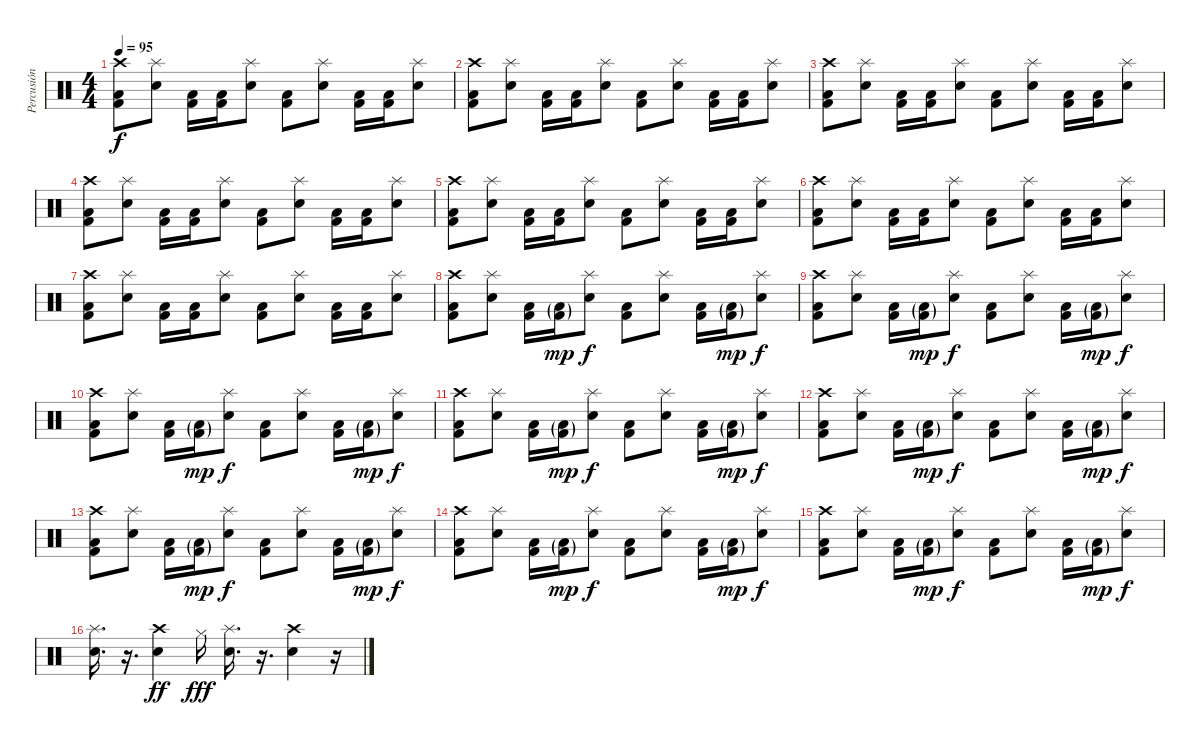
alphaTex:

\track ("Percusión" "Percusión") {instrument percussion}
\staff {score}
\articulation defaults
\ts (4 4)
\tempo 95
\clef neutral
\ks c
("Crash high (hit)" "Low Floor Tom (hit)" "Kick (hit) 2").8{dy f} ("Splash (hit)" "Electric Snare (hit)").8 ("Low Floor Tom (hit)" "Kick (hit) 2").16 ("Low Floor Tom (hit)" "Kick (hit) 2").16 ("Splash (hit)" "Electric Snare (hit)").8 ("Low Floor Tom (hit)" "Kick (hit) 2").8 ("Splash (hit)" "Electric Snare (hit)").8 ("Low Floor Tom (hit)" "Kick (hit) 2").16 ("Low Floor Tom (hit)" "Kick (hit) 2").16 ("Splash (hit)" "Electric Snare (hit)").8 |
("Crash high (hit)" "Low Floor Tom (hit)" "Kick (hit) 2").8 ("Splash (hit)" "Electric Snare (hit)").8 ("Low Floor Tom (hit)" "Kick (hit) 2").16 ("Low Floor Tom (hit)" "Kick (hit) 2").16 ("Splash (hit)" "Electric Snare (hit)").8 ("Low Floor Tom (hit)" "Kick (hit) 2").8 ("Splash (hit)" "Electric Snare (hit)").8 ("Low Floor Tom (hit)" "Kick (hit) 2").16 ("Low Floor Tom (hit)" "Kick (hit) 2").16 ("Splash (hit)" "Electric Snare (hit)").8 |
("Crash high (hit)" "Low Floor Tom (hit)" "Kick (hit) 2").8 ("Splash (hit)" "Electric Snare (hit)").8 ("Low Floor Tom (hit)" "Kick (hit) 2").16 ("Low Floor Tom (hit)" "Kick (hit) 2").16 ("Splash (hit)" "Electric Snare (hit)").8 ("Low Floor Tom (hit)" "Kick (hit) 2").8 ("Splash (hit)" "Electric Snare (hit)").8 ("Low Floor Tom (hit)" "Kick (hit) 2").16 ("Low Floor Tom (hit)" "Kick (hit) 2").16 ("Splash (hit)" "Electric Snare (hit)").8 |
("Crash high (hit)" "Low Floor Tom (hit)" "Kick (hit) 2").8 ("Splash (hit)" "Electric Snare (hit)").8 ("Low Floor Tom (hit)" "Kick (hit) 2").16 ("Low Floor Tom (hit)" "Kick (hit) 2").16 ("Splash (hit)" "Electric Snare (hit)").8 ("Low Floor Tom (hit)" "Kick (hit) 2").8 ("Splash (hit)" "Electric Snare (hit)").8 ("Low Floor Tom (hit)" "Kick (hit) 2").16 ("Low Floor Tom (hit)" "Kick (hit) 2").16 ("Splash (hit)" "Electric Snare (hit)").8 |
("Crash high (hit)" "Low Floor Tom (hit)" "Kick (hit) 2").8 ("Splash (hit)" "Electric Snare (hit)").8 ("Low Floor Tom (hit)" "Kick (hit) 2").16 ("Low Floor Tom (hit)" "Kick (hit) 2").16 ("Splash (hit)" "Electric Snare (hit)").8 ("Low Floor Tom (hit)" "Kick (hit) 2").8 ("Splash (hit)" "Electric Snare (hit)").8 ("Low Floor Tom (hit)" "Kick (hit) 2").16 ("Low Floor Tom (hit)" "Kick (hit) 2").16 ("Splash (hit)" "Electric Snare (hit)").8 |
("Crash high (hit)" "Low Floor Tom (hit)" "Kick (hit) 2").8 ("Splash (hit)" "Electric Snare (hit)").8 ("Low Floor Tom (hit)" "Kick (hit) 2").16 ("Low Floor Tom (hit)" "Kick (hit) 2").16 ("Splash (hit)" "Electric Snare (hit)").8 ("Low Floor Tom (hit)" "Kick (hit) 2").8 ("Splash (hit)" "Electric Snare (hit)").8 ("Low Floor Tom (hit)" "Kick (hit) 2").16 ("Low Floor Tom (hit)" "Kick (hit) 2").16 ("Splash (hit)" "Electric Snare (hit)").8 |
("Crash high (hit)" "Low Floor Tom (hit)" "Kick (hit) 2").8 ("Splash (hit)" "Electric Snare (hit)").8 ("Low Floor Tom (hit)" "Kick (hit) 2").16 ("Low Floor Tom (hit)" "Kick (hit) 2").16 ("Splash (hit)" "Electric Snare (hit)").8 ("Low Floor Tom (hit)" "Kick (hit) 2").8 ("Splash (hit)" "Electric Snare (hit)").8 ("Low Floor Tom (hit)" "Kick (hit) 2").16 ("Low Floor Tom (hit)" "Kick (hit) 2").16 ("Splash (hit)" "Electric Snare (hit)").8 |
("Crash high (hit)" "Low Floor Tom (hit)" "Kick (hit) 2").8 ("Splash (hit)" "Electric Snare (hit)").8 ("Low Floor Tom (hit)" "Kick (hit) 2").16 ("Low Floor Tom (hit)"{g} "Kick (hit) 2"{g}).16{dy mp} ("Splash (hit)" "Electric Snare (hit)").8{dy f} ("Low Floor Tom (hit)" "Kick (hit) 2").8 ("Splash (hit)" "Electric Snare (hit)").8 ("Low Floor Tom (hit)" "Kick (hit) 2").16 ("Low Floor Tom (hit)"{g} "Kick (hit) 2"{g}).16{dy mp} ("Splash (hit)" "Electric Snare (hit)").8{dy f} |
("Crash high (hit)" "Low Floor Tom (hit)" "Kick (hit) 2").8 ("Splash (hit)" "Electric Snare (hit)").8 ("Low Floor Tom (hit)" "Kick (hit) 2").16 ("Low Floor Tom (hit)"{g} "Kick (hit) 2"{g}).16{dy mp} ("Splash (hit)" "Electric Snare (hit)").8{dy f} ("Low Floor Tom (hit)" "Kick (hit) 2").8 ("Splash (hit)" "Electric Snare (hit)").8 ("Low Floor Tom (hit)" "Kick (hit) 2").16 ("Low Floor Tom (hit)"{g} "Kick (hit) 2"{g}).16{dy mp} ("Splash (hit)" "Electric Snare (hit)").8{dy f} |
("Crash high (hit)" "Low Floor Tom (hit)" "Kick (hit) 2").8 ("Splash (hit)" "Electric Snare (hit)").8 ("Low Floor Tom (hit)" "Kick (hit) 2").16 ("Low Floor Tom (hit)"{g} "Kick (hit) 2"{g}).16{dy mp} ("Splash (hit)" "Electric Snare (hit)").8{dy f} ("Low Floor Tom (hit)" "Kick (hit) 2").8 ("Splash (hit)" "Electric Snare (hit)").8 ("Low Floor Tom (hit)" "Kick (hit) 2").16 ("Low Floor Tom (hit)"{g} "Kick (hit) 2"{g}).16{dy mp} ("Splash (hit)" "Electric Snare (hit)").8{dy f} |
("Crash high (hit)" "Low Floor Tom (hit)" "Kick (hit) 2").8 ("Splash (hit)" "Electric Snare (hit)").8 ("Low Floor Tom (hit)" "Kick (hit) 2").16 ("Low Floor Tom (hit)"{g} "Kick (hit) 2"{g}).16{dy mp} ("Splash (hit)" "Electric Snare (hit)").8{dy f} ("Low Floor Tom (hit)" "Kick (hit) 2").8 ("Splash (hit)" "Electric Snare (hit)").8 ("Low Floor Tom (hit)" "Kick (hit) 2").16 ("Low Floor Tom (hit)"{g} "Kick (hit) 2"{g}).16{dy mp} ("Splash (hit)" "Electric Snare (hit)").8{dy f} |
("Crash high (hit)" "Low Floor Tom (hit)" "Kick (hit) 2").8 ("Splash (hit)" "Electric Snare (hit)").8 ("Low Floor Tom (hit)" "Kick (hit) 2").16 ("Low Floor Tom (hit)"{g} "Kick (hit) 2"{g}).16{dy mp} ("Splash (hit)" "Electric Snare (hit)").8{dy f} ("Low Floor Tom (hit)" "Kick (hit) 2").8 ("Splash (hit)" "Electric Snare (hit)").8 ("Low Floor Tom (hit)" "Kick (hit) 2").16 ("Low Floor Tom (hit)"{g} "Kick (hit) 2"{g}).16{dy mp} ("Splash (hit)" "Electric Snare (hit)").8{dy f} |
("Crash high (hit)" "Low Floor Tom (hit)" "Kick (hit) 2").8 ("Splash (hit)" "Electric Snare (hit)").8 ("Low Floor Tom (hit)" "Kick (hit) 2").16 ("Low Floor Tom (hit)"{g} "Kick (hit) 2"{g}).16{dy mp} ("Splash (hit)" "Electric Snare (hit)").8{dy f} ("Low Floor Tom (hit)" "Kick (hit) 2").8 ("Splash (hit)" "Electric Snare (hit)").8 ("Low Floor Tom (hit)" "Kick (hit) 2").16 ("Low Floor Tom (hit)"{g} "Kick (hit) 2"{g}).16{dy mp} ("Splash (hit)" "Electric Snare (hit)").8{dy f} |
("Crash high (hit)" "Low Floor Tom (hit)" "Kick (hit) 2").8 ("Splash (hit)" "Electric Snare (hit)").8 ("Low Floor Tom (hit)" "Kick (hit) 2").16 ("Low Floor Tom (hit)"{g} "Kick (hit) 2"{g}).16{dy mp} ("Splash (hit)" "Electric Snare (hit)").8{dy f} ("Low Floor Tom (hit)" "Kick (hit) 2").8 ("Splash (hit)" "Electric Snare (hit)").8 ("Low Floor Tom (hit)" "Kick (hit) 2").16 ("Low Floor Tom (hit)"{g} "Kick (hit) 2"{g}).16{dy mp} ("Splash (hit)" "Electric Snare (hit)").8{dy f} |
("Crash high (hit)" "Low Floor Tom (hit)" "Kick (hit) 2").8 ("Splash (hit)" "Electric Snare (hit)").8 ("Low Floor Tom (hit)" "Kick (hit) 2").16 ("Low Floor Tom (hit)"{g} "Kick (hit) 2"{g}).16{dy mp} ("Splash (hit)" "Electric Snare (hit)").8{dy f} ("Low Floor Tom (hit)" "Kick (hit) 2").8 ("Splash (hit)" "Electric Snare (hit)").8 ("Low Floor Tom (hit)" "Kick (hit) 2").16 ("Low Floor Tom (hit)"{g} "Kick (hit) 2"{g}).16{dy mp} ("Splash (hit)" "Electric Snare (hit)").8{dy f} |
("Splash (hit)" "Electric Snare (hit)").16{d} r.16{d} ("Crash high (hit)" "Electric Snare (hit)").4{dy ff} "Hi-Hat (closed)".16{dy fff} ("Splash (hit)" "Electric Snare (hit)").16{d} r.16{d} ("Crash high (hit)" "Electric Snare (hit)").4 r.16
